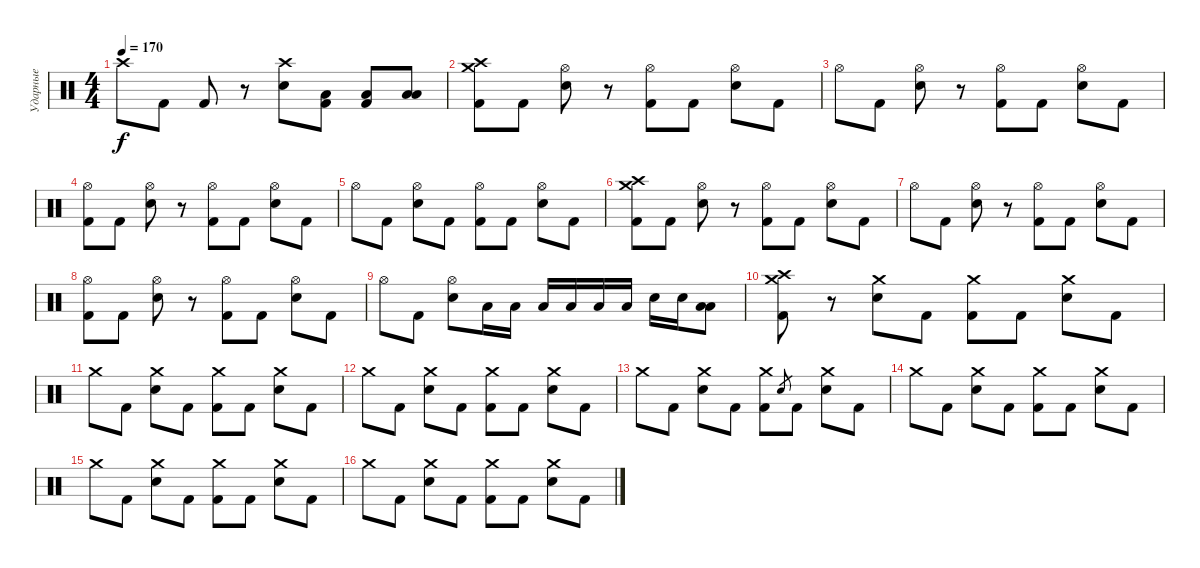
\track ("Ударные" "Ударные") {instrument percussion}
\staff {score}
\articulation defaults
\ts (4 4)
\tempo 170
\clef neutral
\ks c "Crash high (hit)".8{dy f} "Kick (hit) 2".8 "Kick (hit) 2".8
r.8 ("Crash high (hit)" "Electric Snare (hit)").8 ("Low Tom (hit)" "Kick (hit) 2").8 ("Low Floor Tom (hit)" "Kick (hit) 2").8 ("Low Tom (hit)" "Low Floor Tom (hit)").8 |
("Crash medium (hit)" "Crash high (hit)" "Kick (hit) 2").8 "Kick (hit) 2".8 ("Hi-Hat (open)" "Electric Snare (hit)").8 r.8 ("Hi-Hat (open)" "Kick (hit) 2").8 "Kick (hit) 2".8 ("Hi-Hat (open)" "Electric Snare (hit)").8 "Kick (hit) 2".8 |
"Hi-Hat (open)".8 "Kick (hit) 2".8 ("Hi-Hat (open)" "Electric Snare (hit)").8 r.8 ("Hi-Hat (open)" "Kick (hit) 2").8 "Kick (hit) 2".8 ("Hi-Hat (open)" "Electric Snare (hit)").8 "Kick (hit) 2".8 |
("Hi-Hat (open)" "Kick (hit) 2").8 "Kick (hit) 2".8 ("Hi-Hat (open)" "Electric Snare (hit)").8 r.8 ("Hi-Hat (open)" "Kick (hit) 2").8 "Kick (hit) 2".8 ("Hi-Hat (open)" "Electric Snare (hit)").8 "Kick (hit) 2".8 |
"Hi-Hat (open)".8 "Kick (hit) 2".8 ("Hi-Hat (open)" "Electric Snare (hit)").8 "Kick (hit) 2".8 ("Hi-Hat (open)" "Kick (hit) 2").8 "Kick (hit) 2".8 ("Hi-Hat (open)" "Electric Snare (hit)").8 "Kick (hit) 2".8 |
("Crash medium (hit)" "Crash high (hit)" "Kick (hit) 2").8 "Kick (hit) 2".8 ("Hi-Hat (open)" "Electric Snare (hit)").8 r.8 ("Hi-Hat (open)" "Kick (hit) 2").8 "Kick (hit) 2".8 ("Hi-Hat (open)" "Electric Snare (hit)").8 "Kick (hit) 2".8 |
"Hi-Hat (open)".8 "Kick (hit) 2".8 ("Hi-Hat (open)" "Electric Snare (hit)").8 r.8 ("Hi-Hat (open)" "Kick (hit) 2").8 "Kick (hit) 2".8 ("Hi-Hat (open)" "Electric Snare (hit)").8 "Kick (hit) 2".8 |
("Hi-Hat (open)" "Kick (hit) 2").8 "Kick (hit) 2".8 ("Hi-Hat (open)" "Electric Snare (hit)").8 r.8 ("Hi-Hat (open)" "Kick (hit) 2").8 "Kick (hit) 2".8 ("Hi-Hat (open)" "Electric Snare (hit)").8 "Kick (hit) 2".8 |
"Hi-Hat (open)".8 "Kick (hit) 2".8 ("Hi-Hat (open)" "Electric Snare (hit)").8 "Low Tom (hit)".16 "Low Tom (hit)".16 "Low Floor Tom (hit)".16 "Low Floor Tom (hit)".16 "Low Tom (hit)".16 "Low Tom (hit)".16 "Electric Snare (hit)".16 "Electric Snare (hit)".16 ("Low Tom (hit)" "Low Floor Tom (hit)").8 |
("Crash medium (hit)" "Crash high (hit)" "Kick (hit) 2").8 r.8 ("Crash medium (hit)" "Electric Snare (hit)").8 "Kick (hit) 2".8 ("Crash medium (hit)" "Kick (hit) 2").8 "Kick (hit) 2".8 ("Crash medium (hit)" "Electric Snare (hit)").8 "Kick (hit) 2".8 |
"Crash medium (hit)".8 "Kick (hit) 2".8 ("Crash medium (hit)" "Electric Snare (hit)").8 "Kick (hit) 2".8 ("Crash medium (hit)" "Kick (hit) 2").8 "Kick (hit) 2".8 ("Crash medium (hit)" "Electric Snare (hit)").8 "Kick (hit) 2".8 |
"Crash medium (hit)".8 "Kick (hit) 2".8 ("Crash medium (hit)" "Electric Snare (hit)").8 "Kick (hit) 2".8 ("Crash medium (hit)" "Kick (hit) 2").8 "Kick (hit) 2".8 ("Crash medium (hit)" "Electric Snare (hit)").8 "Kick (hit) 2".8 |
"Crash medium (hit)".8 "Kick (hit) 2".8 ("Crash medium (hit)" "Electric Snare (hit)").8 "Kick (hit) 2".8 ("Crash medium (hit)" "Kick (hit) 2").8 "Electric Snare (hit)".8{gr} "Kick (hit) 2".8 ("Crash medium (hit)" "Electric Snare (hit)").8 "Kick (hit) 2".8 |
"Crash medium (hit)".8 "Kick (hit) 2".8 ("Crash medium (hit)" "Electric Snare (hit)").8 "Kick (hit) 2".8 ("Crash medium (hit)" "Kick (hit) 2").8 "Kick (hit) 2".8 ("Crash medium (hit)" "Electric Snare (hit)").8 "Kick (hit) 2".8 |
"Crash medium (hit)".8 "Kick (hit) 2".8 ("Crash medium (hit)" "Electric Snare (hit)").8 "Kick (hit) 2".8 ("Crash medium (hit)" "Kick (hit) 2").8 "Kick (hit) 2".8 ("Crash medium (hit)" "Electric Snare (hit)").8 "Kick (hit) 2".8 |
"Crash medium (hit)".8 "Kick (hit) 2".8 ("Crash medium (hit)" "Electric Snare (hit)").8 "Kick (hit) 2".8 ("Crash medium (hit)" "Kick (hit) 2").8 "Kick (hit) 2".8 ("Crash medium (hit)" "Electric Snare (hit)").8 "Kick (hit) 2".8
